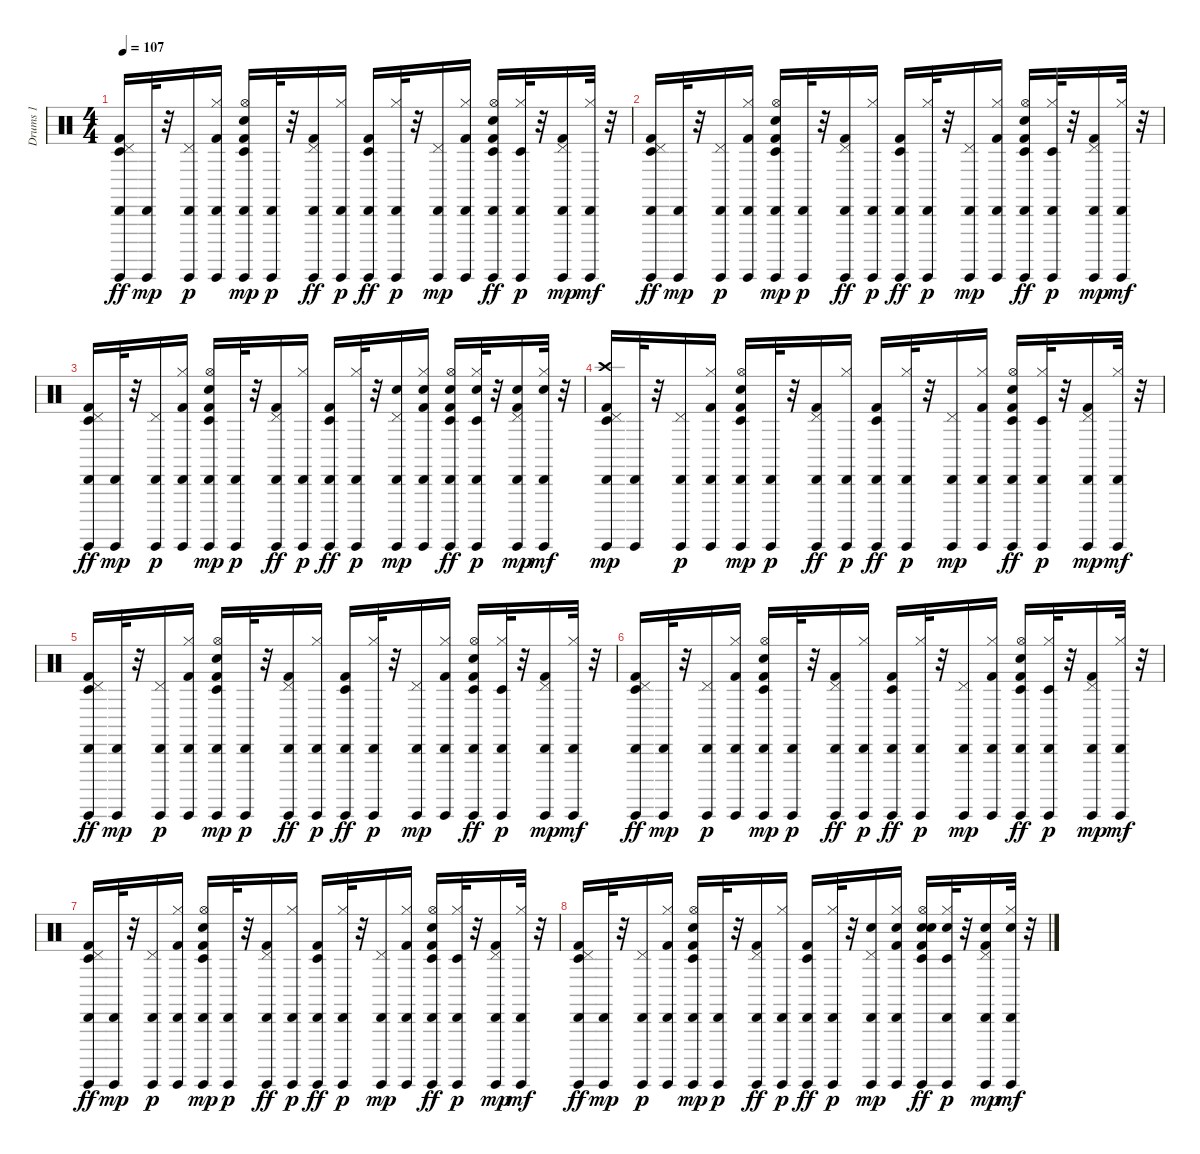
\track ("Drums 1" "Drums 1") {instrument percussion}
\staff {score}
\articulation defaults
\ts (4 4)
\tempo 107
\clef neutral
\ks c
("Timbale low (hit)" "Kick (hit) 2" "Pedal Hi-Hat (hit)" "Guiro (hit)" "Cabasa (hit)").16{dy ff} ("Guiro (hit)" "Cabasa (hit)").32{dy mp} r.32 ("Pedal Hi-Hat (hit)" "Guiro (hit)" "Cabasa (hit)").16{dy p} ("Kick (hit) 2" "Hi-Hat (closed)" "Guiro (hit)" "Cabasa (hit)").16 ("Timbale low (hit)" "Kick (hit) 2" "Snare (hit) 2" "Hi-Hat (open)" "Guiro (hit)" "Cabasa (hit)").16{dy mp} ("Guiro (hit)" "Cabasa (hit)").32{dy p} r.32 ("Kick (hit) 2" "Pedal Hi-Hat (hit)" "Guiro (hit)" "Cabasa (hit)").16{dy ff} ("Hi-Hat (closed)" "Guiro (hit)" "Cabasa (hit)").16{dy p} ("Timbale low (hit)" "Kick (hit) 2" "Guiro (hit)" "Cabasa (hit)").16{dy ff} ("Hi-Hat (closed)" "Guiro (hit)" "Cabasa (hit)").32{dy p} r.32 ("Pedal Hi-Hat (hit)" "Guiro (hit)" "Cabasa (hit)").16{dy mp} ("Kick (hit) 2" "Hi-Hat (closed)" "Guiro (hit)" "Cabasa (hit)").16 ("Timbale low (hit)" "Kick (hit) 2" "Snare (hit) 2" "Hi-Hat (open)" "Guiro (hit)" "Cabasa (hit)").16{dy ff} ("Timbale low (hit)" "Hi-Hat (closed)" "Guiro (hit)" "Cabasa (hit)").32{dy p} r.32 ("Kick (hit) 2" "Pedal Hi-Hat (hit)" "Guiro (hit)" "Cabasa (hit)").16{dy mp} ("Hi-Hat (closed)" "Guiro (hit)" "Cabasa (hit)").32{dy mf} r.32 |
("Timbale low (hit)" "Kick (hit) 2" "Pedal Hi-Hat (hit)" "Guiro (hit)" "Cabasa (hit)").16{dy ff} ("Guiro (hit)" "Cabasa (hit)").32{dy mp} r.32 ("Pedal Hi-Hat (hit)" "Guiro (hit)" "Cabasa (hit)").16{dy p} ("Kick (hit) 2" "Hi-Hat (closed)" "Guiro (hit)" "Cabasa (hit)").16 ("Timbale low (hit)" "Kick (hit) 2" "Snare (hit) 2" "Hi-Hat (open)" "Guiro (hit)" "Cabasa (hit)").16{dy mp} ("Guiro (hit)" "Cabasa (hit)").32{dy p} r.32 ("Kick (hit) 2" "Pedal Hi-Hat (hit)" "Guiro (hit)" "Cabasa (hit)").16{dy ff} ("Hi-Hat (closed)" "Guiro (hit)" "Cabasa (hit)").16{dy p} ("Timbale low (hit)" "Kick (hit) 2" "Guiro (hit)" "Cabasa (hit)").16{dy ff} ("Hi-Hat (closed)" "Guiro (hit)" "Cabasa (hit)").32{dy p} r.32 ("Pedal Hi-Hat (hit)" "Guiro (hit)" "Cabasa (hit)").16{dy mp} ("Kick (hit) 2" "Hi-Hat (closed)" "Guiro (hit)" "Cabasa (hit)").16 ("Timbale low (hit)" "Kick (hit) 2" "Snare (hit) 2" "Hi-Hat (open)" "Guiro (hit)" "Cabasa (hit)").16{dy ff} ("Timbale low (hit)" "Hi-Hat (closed)" "Guiro (hit)" "Cabasa (hit)").32{dy p} r.32 ("Kick (hit) 2" "Pedal Hi-Hat (hit)" "Guiro (hit)" "Cabasa (hit)").16{dy mp} ("Hi-Hat (closed)" "Guiro (hit)" "Cabasa (hit)").32{dy mf} r.32 |
("Timbale low (hit)" "Kick (hit) 2" "Pedal Hi-Hat (hit)" "Guiro (hit)" "Cabasa (hit)").16{dy ff} ("Guiro (hit)" "Cabasa (hit)").32{dy mp} r.32 ("Pedal Hi-Hat (hit)" "Guiro (hit)" "Cabasa (hit)").16{dy p} ("Kick (hit) 2" "Hi-Hat (closed)" "Guiro (hit)" "Cabasa (hit)").16 ("Timbale low (hit)" "Kick (hit) 2" "Snare (hit) 2" "Hi-Hat (open)" "Guiro (hit)" "Cabasa (hit)").16{dy mp} ("Guiro (hit)" "Cabasa (hit)").32{dy p} r.32 ("Kick (hit) 2" "Pedal Hi-Hat (hit)" "Guiro (hit)" "Cabasa (hit)").16{dy ff} ("Hi-Hat (closed)" "Guiro (hit)" "Cabasa (hit)").16{dy p} ("Timbale low (hit)" "Kick (hit) 2" "Guiro (hit)" "Cabasa (hit)").16{dy ff} ("Hi-Hat (closed)" "Guiro (hit)" "Cabasa (hit)").32{dy p} r.32 ("Pedal Hi-Hat (hit)" "Guiro (hit)" "Snare (hit) 2" "Cabasa (hit)").16{dy mp} ("Kick (hit) 2" "Hi-Hat (closed)" "Guiro (hit)" "Snare (hit) 2" "Cabasa (hit)").16 ("Timbale low (hit)" "Kick (hit) 2" "Hi-Hat (open)" "Guiro (hit)" "Snare (hit) 2" "Cabasa (hit)").16{dy ff} ("Timbale low (hit)" "Hi-Hat (closed)" "Guiro (hit)" "Snare (hit) 2" "Cabasa (hit)").32{dy p} r.32 ("Kick (hit) 2" "Pedal Hi-Hat (hit)" "Guiro (hit)" "Snare (hit) 2" "Cabasa (hit)").16{dy mp} ("Hi-Hat (closed)" "Guiro (hit)" "Snare (hit) 2" "Cabasa (hit)").32{dy mf} r.32 |
("Timbale low (hit)" "Kick (hit) 2" "Pedal Hi-Hat (hit)" "Guiro (hit)" "Cabasa (hit)" "Crash high (hit)").16{dy mp} ("Guiro (hit)" "Cabasa (hit)").32 r.32 ("Pedal Hi-Hat (hit)" "Guiro (hit)" "Cabasa (hit)").16{dy p} ("Kick (hit) 2" "Hi-Hat (closed)" "Guiro (hit)" "Cabasa (hit)").16 ("Timbale low (hit)" "Kick (hit) 2" "Electric Snare (hit)" "Hi-Hat (open)" "Guiro (hit)" "Cabasa (hit)").16{dy mp} ("Guiro (hit)" "Cabasa (hit)").32{dy p} r.32 ("Kick (hit) 2" "Pedal Hi-Hat (hit)" "Guiro (hit)" "Cabasa (hit)").16{dy ff} ("Hi-Hat (closed)" "Guiro (hit)" "Cabasa (hit)").16{dy p} ("Timbale low (hit)" "Kick (hit) 2" "Guiro (hit)" "Cabasa (hit)").16{dy ff} ("Hi-Hat (closed)" "Guiro (hit)" "Cabasa (hit)").32{dy p} r.32 ("Pedal Hi-Hat (hit)" "Guiro (hit)" "Cabasa (hit)").16{dy mp} ("Kick (hit) 2" "Hi-Hat (closed)" "Guiro (hit)" "Cabasa (hit)").16 ("Timbale low (hit)" "Kick (hit) 2" "Electric Snare (hit)" "Hi-Hat (open)" "Guiro (hit)" "Cabasa (hit)").16{dy ff} ("Timbale low (hit)" "Hi-Hat (closed)" "Guiro (hit)" "Cabasa (hit)").32{dy p} r.32 ("Kick (hit) 2" "Pedal Hi-Hat (hit)" "Guiro (hit)" "Cabasa (hit)").16{dy mp} ("Hi-Hat (closed)" "Guiro (hit)" "Cabasa (hit)").32{dy mf} r.32 |
("Timbale low (hit)" "Kick (hit) 2" "Pedal Hi-Hat (hit)" "Guiro (hit)" "Cabasa (hit)").16{dy ff} ("Guiro (hit)" "Cabasa (hit)").32{dy mp} r.32 ("Pedal Hi-Hat (hit)" "Guiro (hit)" "Cabasa (hit)").16{dy p} ("Kick (hit) 2" "Hi-Hat (closed)" "Guiro (hit)" "Cabasa (hit)").16 ("Timbale low (hit)" "Kick (hit) 2" "Electric Snare (hit)" "Hi-Hat (open)" "Guiro (hit)" "Cabasa (hit)").16{dy mp} ("Guiro (hit)" "Cabasa (hit)").32{dy p} r.32 ("Kick (hit) 2" "Pedal Hi-Hat (hit)" "Guiro (hit)" "Cabasa (hit)").16{dy ff} ("Hi-Hat (closed)" "Guiro (hit)" "Cabasa (hit)").16{dy p} ("Timbale low (hit)" "Kick (hit) 2" "Guiro (hit)" "Cabasa (hit)").16{dy ff} ("Hi-Hat (closed)" "Guiro (hit)" "Cabasa (hit)").32{dy p} r.32 ("Pedal Hi-Hat (hit)" "Guiro (hit)" "Cabasa (hit)").16{dy mp} ("Kick (hit) 2" "Hi-Hat (closed)" "Guiro (hit)" "Cabasa (hit)").16 ("Timbale low (hit)" "Kick (hit) 2" "Electric Snare (hit)" "Hi-Hat (open)" "Guiro (hit)" "Cabasa (hit)").16{dy ff} ("Timbale low (hit)" "Hi-Hat (closed)" "Guiro (hit)" "Cabasa (hit)").32{dy p} r.32 ("Kick (hit) 2" "Pedal Hi-Hat (hit)" "Guiro (hit)" "Cabasa (hit)").16{dy mp} ("Hi-Hat (closed)" "Guiro (hit)" "Cabasa (hit)").32{dy mf} r.32 |
("Timbale low (hit)" "Kick (hit) 2" "Pedal Hi-Hat (hit)" "Guiro (hit)" "Cabasa (hit)").16{dy ff} ("Guiro (hit)" "Cabasa (hit)").32{dy mp} r.32 ("Pedal Hi-Hat (hit)" "Guiro (hit)" "Cabasa (hit)").16{dy p} ("Kick (hit) 2" "Hi-Hat (closed)" "Guiro (hit)" "Cabasa (hit)").16 ("Timbale low (hit)" "Kick (hit) 2" "Electric Snare (hit)" "Hi-Hat (open)" "Guiro (hit)" "Cabasa (hit)").16{dy mp} ("Guiro (hit)" "Cabasa (hit)").32{dy p} r.32 ("Kick (hit) 2" "Pedal Hi-Hat (hit)" "Guiro (hit)" "Cabasa (hit)").16{dy ff} ("Hi-Hat (closed)" "Guiro (hit)" "Cabasa (hit)").16{dy p} ("Timbale low (hit)" "Kick (hit) 2" "Guiro (hit)" "Cabasa (hit)").16{dy ff} ("Hi-Hat (closed)" "Guiro (hit)" "Cabasa (hit)").32{dy p} r.32 ("Pedal Hi-Hat (hit)" "Guiro (hit)" "Cabasa (hit)").16{dy mp} ("Kick (hit) 2" "Hi-Hat (closed)" "Guiro (hit)" "Cabasa (hit)").16 ("Timbale low (hit)" "Kick (hit) 2" "Electric Snare (hit)" "Hi-Hat (open)" "Guiro (hit)" "Cabasa (hit)").16{dy ff} ("Timbale low (hit)" "Hi-Hat (closed)" "Guiro (hit)" "Cabasa (hit)").32{dy p} r.32 ("Kick (hit) 2" "Pedal Hi-Hat (hit)" "Guiro (hit)" "Cabasa (hit)").16{dy mp} ("Hi-Hat (closed)" "Guiro (hit)" "Cabasa (hit)").32{dy mf} r.32 |
("Timbale low (hit)" "Kick (hit) 2" "Pedal Hi-Hat (hit)" "Guiro (hit)" "Cabasa (hit)").16{dy ff} ("Guiro (hit)" "Cabasa (hit)").32{dy mp} r.32 ("Pedal Hi-Hat (hit)" "Guiro (hit)" "Cabasa (hit)").16{dy p} ("Kick (hit) 2" "Hi-Hat (closed)" "Guiro (hit)" "Cabasa (hit)").16 ("Timbale low (hit)" "Kick (hit) 2" "Electric Snare (hit)" "Hi-Hat (open)" "Guiro (hit)" "Cabasa (hit)").16{dy mp} ("Guiro (hit)" "Cabasa (hit)").32{dy p} r.32 ("Kick (hit) 2" "Pedal Hi-Hat (hit)" "Guiro (hit)" "Cabasa (hit)").16{dy ff} ("Hi-Hat (closed)" "Guiro (hit)" "Cabasa (hit)").16{dy p} ("Timbale low (hit)" "Kick (hit) 2" "Guiro (hit)" "Cabasa (hit)").16{dy ff} ("Hi-Hat (closed)" "Guiro (hit)" "Cabasa (hit)").32{dy p} r.32 ("Pedal Hi-Hat (hit)" "Guiro (hit)" "Cabasa (hit)").16{dy mp} ("Kick (hit) 2" "Hi-Hat (closed)" "Guiro (hit)" "Cabasa (hit)").16 ("Timbale low (hit)" "Kick (hit) 2" "Electric Snare (hit)" "Hi-Hat (open)" "Guiro (hit)" "Cabasa (hit)").16{dy ff} ("Timbale low (hit)" "Hi-Hat (closed)" "Guiro (hit)" "Cabasa (hit)").32{dy p} r.32 ("Kick (hit) 2" "Pedal Hi-Hat (hit)" "Guiro (hit)" "Cabasa (hit)").16{dy mp} ("Hi-Hat (closed)" "Guiro (hit)" "Cabasa (hit)").32{dy mf} r.32 |
("Timbale low (hit)" "Kick (hit) 2" "Pedal Hi-Hat (hit)" "Guiro (hit)" "Cabasa (hit)").16{dy ff} ("Guiro (hit)" "Cabasa (hit)").32{dy mp} r.32 ("Pedal Hi-Hat (hit)" "Guiro (hit)" "Cabasa (hit)").16{dy p} ("Kick (hit) 2" "Hi-Hat (closed)" "Guiro (hit)" "Cabasa (hit)").16 ("Timbale low (hit)" "Kick (hit) 2" "Electric Snare (hit)" "Hi-Hat (open)" "Guiro (hit)" "Cabasa (hit)").16{dy mp} ("Guiro (hit)" "Cabasa (hit)").32{dy p} r.32 ("Kick (hit) 2" "Pedal Hi-Hat (hit)" "Guiro (hit)" "Cabasa (hit)").16{dy ff} ("Hi-Hat (closed)" "Guiro (hit)" "Cabasa (hit)").16{dy p} ("Timbale low (hit)" "Kick (hit) 2" "Guiro (hit)" "Cabasa (hit)").16{dy ff} ("Hi-Hat (closed)" "Guiro (hit)" "Cabasa (hit)").32{dy p} r.32 ("Pedal Hi-Hat (hit)" "Guiro (hit)" "Snare (hit) 2" "Cabasa (hit)").16{dy mp} ("Kick (hit) 2" "Hi-Hat (closed)" "Guiro (hit)" "Snare (hit) 2" "Cabasa (hit)").16 ("Timbale low (hit)" "Kick (hit) 2" "Electric Snare (hit)" "Hi-Hat (open)" "Guiro (hit)" "Snare (hit) 2").16{dy ff} ("Timbale low (hit)" "Hi-Hat (closed)" "Guiro (hit)" "Snare (hit) 2" "Cabasa (hit)").32{dy p} r.32 ("Kick (hit) 2" "Pedal Hi-Hat (hit)" "Guiro (hit)" "Snare (hit) 2" "Cabasa (hit)").16{dy mp} ("Hi-Hat (closed)" "Guiro (hit)" "Snare (hit) 2" "Cabasa (hit)").32{dy mf} r.32
